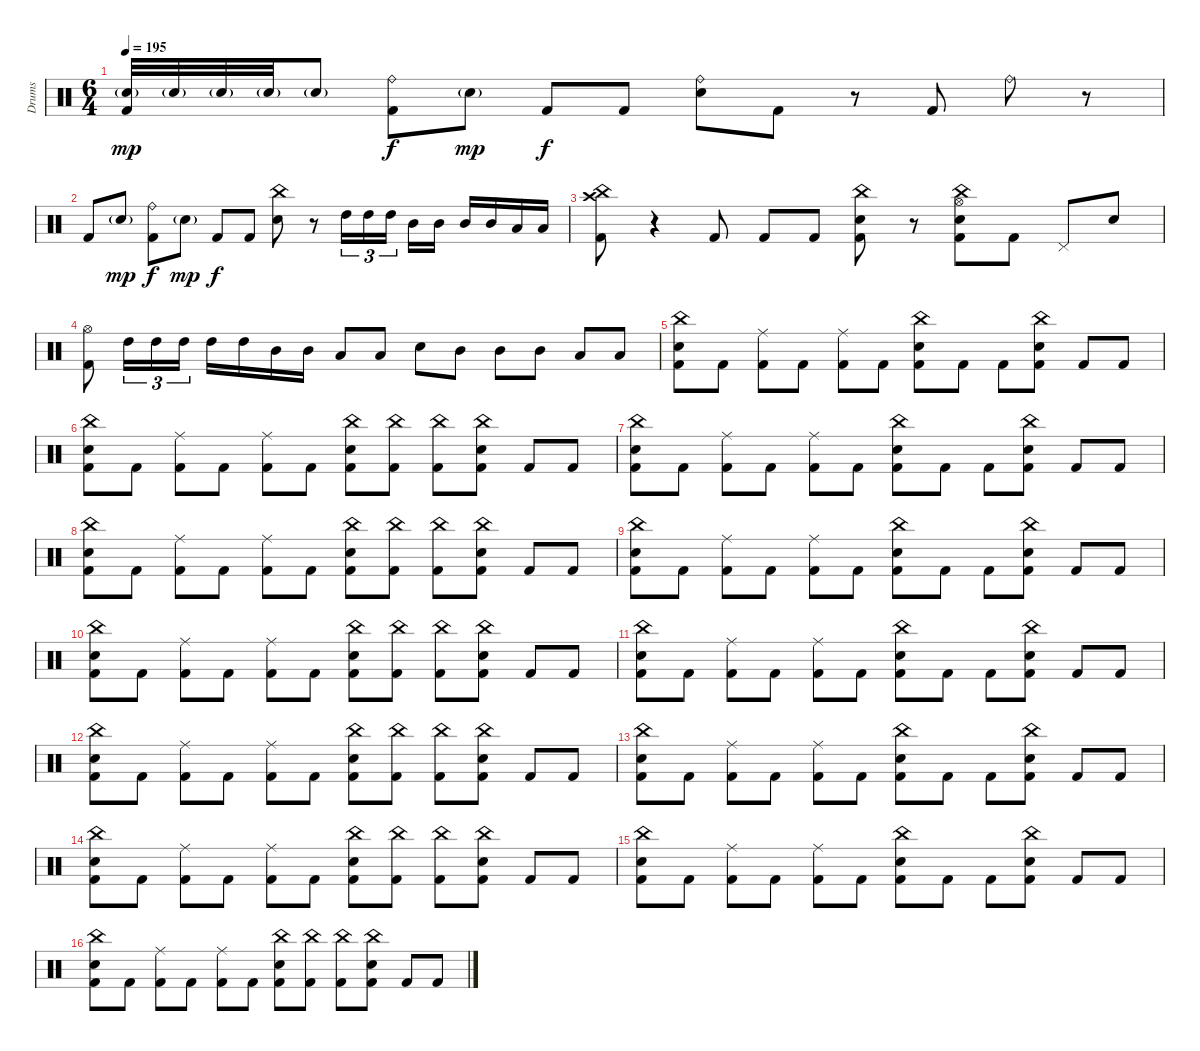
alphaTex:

\track ("Drums" "Drums") {instrument percussion}
\staff {score}
\articulation defaults
\ts (6 4)
\tempo 195
\clef neutral
\ks c
("Electric Snare (hit)"{g} "Kick (hit) 2").32{dy mp} "Electric Snare (hit)"{g}.32 "Electric Snare (hit)"{g}.32 "Electric Snare (hit)"{g}.32 "Electric Snare (hit)"{g}.8 ("Ride (bell)" "Kick (hit) 2").8{dy f} "Electric Snare (hit)"{g}.8{dy mp} "Kick (hit) 2".8{dy f} "Kick (hit) 2".8 ("Ride (bell)" "Electric Snare (hit)").8 "Kick (hit) 2".8 r.8 "Kick (hit) 2".8 "Ride (bell)".8 r.8 |
"Kick (hit) 2".8 "Electric Snare (hit)"{g}.8{dy mp} ("Ride (bell)" "Kick (hit) 2").8{dy f} "Electric Snare (hit)"{g}.8{dy mp} "Kick (hit) 2".8{dy f} "Kick (hit) 2".8 ("China (hit)" "Electric Snare (hit)").8 r.8 "High Tom (hit)".16{tu (3 2)} "High Tom (hit)".16{tu (3 2)} "High Tom (hit)".16{tu (3 2) beam splitsecondary} "Mid Tom (hit)".16 "Mid Tom (hit)".16 "Mid Tom (hit)".16 "Mid Tom (hit)".16 "Low Tom (hit)".16 "Low Tom (hit)".16 |
("China (hit)" "Crash high (hit)" "Kick (hit) 2").8 r.4 "Kick (hit) 2".8 "Kick (hit) 2".8 "Kick (hit) 2".8 ("China (hit)" "Electric Snare (hit)" "Kick (hit) 2").8 r.8 ("China (hit)" "Hi-Hat (open)" "Electric Snare (hit)" "Kick (hit) 2").8 "Kick (hit) 2".8 "Pedal Hi-Hat (hit)".8 "Electric Snare (hit)".8 |
("Hi-Hat (open)" "Kick (hit) 2").8 "High Tom (hit)".16{tu (3 2)} "High Tom (hit)".16{tu (3 2)} "High Tom (hit)".16{tu (3 2) beam splitsecondary} "High Tom (hit)".16 "High Tom (hit)".16 "Mid Tom (hit)".16 "Mid Tom (hit)".16 "Low Tom (hit)".8 "Low Tom (hit)".8 "Electric Snare (hit)".8 "Mid Tom (hit)".8 "Mid Tom (hit)".8 "Mid Tom (hit)".8 "Low Tom (hit)".8 "Low Tom (hit)".8 |
("China (hit)" "Electric Snare (hit)" "Kick (hit) 2").8{volume 16} "Kick (hit) 2".8 ("Ride (middle)" "Kick (hit) 2").8 "Kick (hit) 2".8 ("Ride (middle)" "Kick (hit) 2").8 "Kick (hit) 2".8 ("China (hit)" "Electric Snare (hit)" "Kick (hit) 2").8 "Kick (hit) 2".8 "Kick (hit) 2".8 ("China (hit)" "Electric Snare (hit)" "Kick (hit) 2").8 "Kick (hit) 2".8 "Kick (hit) 2".8 |
("China (hit)" "Electric Snare (hit)" "Kick (hit) 2").8 "Kick (hit) 2".8 ("Ride (middle)" "Kick (hit) 2").8 "Kick (hit) 2".8 ("Ride (middle)" "Kick (hit) 2").8 "Kick (hit) 2".8 ("China (hit)" "Electric Snare (hit)" "Kick (hit) 2").8 ("China (hit)" "Kick (hit) 2").8 ("China (hit)" "Kick (hit) 2").8 ("China (hit)" "Electric Snare (hit)" "Kick (hit) 2").8 "Kick (hit) 2".8 "Kick (hit) 2".8 |
("China (hit)" "Electric Snare (hit)" "Kick (hit) 2").8 "Kick (hit) 2".8 ("Ride (middle)" "Kick (hit) 2").8 "Kick (hit) 2".8 ("Ride (middle)" "Kick (hit) 2").8 "Kick (hit) 2".8 ("China (hit)" "Electric Snare (hit)" "Kick (hit) 2").8 "Kick (hit) 2".8 "Kick (hit) 2".8 ("China (hit)" "Electric Snare (hit)" "Kick (hit) 2").8 "Kick (hit) 2".8 "Kick (hit) 2".8 |
("China (hit)" "Electric Snare (hit)" "Kick (hit) 2").8 "Kick (hit) 2".8 ("Ride (middle)" "Kick (hit) 2").8 "Kick (hit) 2".8 ("Ride (middle)" "Kick (hit) 2").8 "Kick (hit) 2".8 ("China (hit)" "Electric Snare (hit)" "Kick (hit) 2").8 ("China (hit)" "Kick (hit) 2").8 ("China (hit)" "Kick (hit) 2").8 ("China (hit)" "Electric Snare (hit)" "Kick (hit) 2").8 "Kick (hit) 2".8 "Kick (hit) 2".8 |
("China (hit)" "Electric Snare (hit)" "Kick (hit) 2").8 "Kick (hit) 2".8 ("Ride (middle)" "Kick (hit) 2").8 "Kick (hit) 2".8 ("Ride (middle)" "Kick (hit) 2").8 "Kick (hit) 2".8 ("China (hit)" "Electric Snare (hit)" "Kick (hit) 2").8 "Kick (hit) 2".8 "Kick (hit) 2".8 ("China (hit)" "Electric Snare (hit)" "Kick (hit) 2").8 "Kick (hit) 2".8 "Kick (hit) 2".8 |
("China (hit)" "Electric Snare (hit)" "Kick (hit) 2").8 "Kick (hit) 2".8 ("Ride (middle)" "Kick (hit) 2").8 "Kick (hit) 2".8 ("Ride (middle)" "Kick (hit) 2").8 "Kick (hit) 2".8 ("China (hit)" "Electric Snare (hit)" "Kick (hit) 2").8 ("China (hit)" "Kick (hit) 2").8 ("China (hit)" "Kick (hit) 2").8 ("China (hit)" "Electric Snare (hit)" "Kick (hit) 2").8 "Kick (hit) 2".8 "Kick (hit) 2".8 |
("China (hit)" "Electric Snare (hit)" "Kick (hit) 2").8 "Kick (hit) 2".8 ("Ride (middle)" "Kick (hit) 2").8 "Kick (hit) 2".8 ("Ride (middle)" "Kick (hit) 2").8 "Kick (hit) 2".8 ("China (hit)" "Electric Snare (hit)" "Kick (hit) 2").8 "Kick (hit) 2".8 "Kick (hit) 2".8 ("China (hit)" "Electric Snare (hit)" "Kick (hit) 2").8 "Kick (hit) 2".8 "Kick (hit) 2".8 |
("China (hit)" "Electric Snare (hit)" "Kick (hit) 2").8 "Kick (hit) 2".8 ("Ride (middle)" "Kick (hit) 2").8 "Kick (hit) 2".8 ("Ride (middle)" "Kick (hit) 2").8 "Kick (hit) 2".8 ("China (hit)" "Electric Snare (hit)" "Kick (hit) 2").8 ("China (hit)" "Kick (hit) 2").8 ("China (hit)" "Kick (hit) 2").8 ("China (hit)" "Electric Snare (hit)" "Kick (hit) 2").8 "Kick (hit) 2".8 "Kick (hit) 2".8 |
("China (hit)" "Electric Snare (hit)" "Kick (hit) 2").8 "Kick (hit) 2".8 ("Ride (middle)" "Kick (hit) 2").8 "Kick (hit) 2".8 ("Ride (middle)" "Kick (hit) 2").8 "Kick (hit) 2".8 ("China (hit)" "Electric Snare (hit)" "Kick (hit) 2").8 "Kick (hit) 2".8 "Kick (hit) 2".8 ("China (hit)" "Electric Snare (hit)" "Kick (hit) 2").8 "Kick (hit) 2".8 "Kick (hit) 2".8 |
("China (hit)" "Electric Snare (hit)" "Kick (hit) 2").8 "Kick (hit) 2".8 ("Ride (middle)" "Kick (hit) 2").8 "Kick (hit) 2".8 ("Ride (middle)" "Kick (hit) 2").8 "Kick (hit) 2".8 ("China (hit)" "Electric Snare (hit)" "Kick (hit) 2").8 ("China (hit)" "Kick (hit) 2").8 ("China (hit)" "Kick (hit) 2").8 ("China (hit)" "Electric Snare (hit)" "Kick (hit) 2").8 "Kick (hit) 2".8 "Kick (hit) 2".8 |
("China (hit)" "Electric Snare (hit)" "Kick (hit) 2").8 "Kick (hit) 2".8 ("Ride (middle)" "Kick (hit) 2").8 "Kick (hit) 2".8 ("Ride (middle)" "Kick (hit) 2").8 "Kick (hit) 2".8 ("China (hit)" "Electric Snare (hit)" "Kick (hit) 2").8 "Kick (hit) 2".8 "Kick (hit) 2".8 ("China (hit)" "Electric Snare (hit)" "Kick (hit) 2").8 "Kick (hit) 2".8 "Kick (hit) 2".8 |
("China (hit)" "Electric Snare (hit)" "Kick (hit) 2").8 "Kick (hit) 2".8 ("Ride (middle)" "Kick (hit) 2").8 "Kick (hit) 2".8 ("Ride (middle)" "Kick (hit) 2").8 "Kick (hit) 2".8 ("China (hit)" "Electric Snare (hit)" "Kick (hit) 2").8 ("China (hit)" "Kick (hit) 2").8 ("China (hit)" "Kick (hit) 2").8 ("China (hit)" "Electric Snare (hit)" "Kick (hit) 2").8 "Kick (hit) 2".8 "Kick (hit) 2".8
